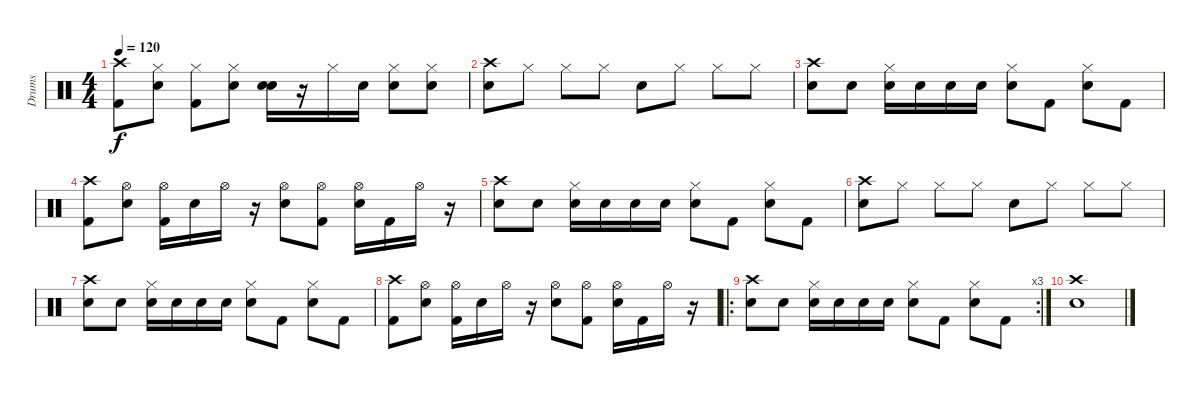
\track ("Drums" "Drums") {instrument percussion}
\staff {score}
\articulation defaults
\ts (4 4)
\tempo 120
\clef neutral
\ks c
("Crash high (hit)" "Kick (hit) 2").8{dy f} ("Hi-Hat (closed)" "Electric Snare (hit)").8 ("Hi-Hat (closed)" "Kick (hit) 2").8 ("Hi-Hat (closed)" "Electric Snare (hit)").8 ("Electric Snare (hit)" "Electric Snare (hit)").16 r.16 "Hi-Hat (closed)".16 "Electric Snare (hit)".16 ("Hi-Hat (closed)" "Electric Snare (hit)").8 ("Hi-Hat (closed)" "Electric Snare (hit)").8 |
("Crash high (hit)" "Electric Snare (hit)").8 "Hi-Hat (closed)".8 "Hi-Hat (closed)".8 "Hi-Hat (closed)".8 "Electric Snare (hit)".8 "Hi-Hat (closed)".8 "Hi-Hat (closed)".8 "Hi-Hat (closed)".8 |
("Crash high (hit)" "Electric Snare (hit)").8 "Electric Snare (hit)".8 ("Hi-Hat (closed)" "Electric Snare (hit)").16 "Electric Snare (hit)".16 "Electric Snare (hit)".16 "Electric Snare (hit)".16 ("Hi-Hat (closed)" "Electric Snare (hit)").8 "Kick (hit) 2".8 ("Hi-Hat (closed)" "Electric Snare (hit)").8 "Kick (hit) 2".8 |
("Crash high (hit)" "Kick (hit) 2").8 ("Hi-Hat (open)" "Electric Snare (hit)").8 ("Hi-Hat (open)" "Kick (hit) 2").16 "Electric Snare (hit)".16 "Hi-Hat (open)".16 r.16 ("Hi-Hat (open)" "Electric Snare (hit)").8 ("Hi-Hat (open)" "Kick (hit) 2").8 ("Hi-Hat (open)" "Electric Snare (hit)").16 "Kick (hit) 2".16 "Hi-Hat (open)".16 r.16 |
("Crash high (hit)" "Electric Snare (hit)").8 "Electric Snare (hit)".8 ("Hi-Hat (closed)" "Electric Snare (hit)").16 "Electric Snare (hit)".16 "Electric Snare (hit)".16 "Electric Snare (hit)".16 ("Hi-Hat (closed)" "Electric Snare (hit)").8 "Kick (hit) 2".8 ("Hi-Hat (closed)" "Electric Snare (hit)").8 "Kick (hit) 2".8 |
("Crash high (hit)" "Electric Snare (hit)").8 "Hi-Hat (closed)".8 "Hi-Hat (closed)".8 "Hi-Hat (closed)".8 "Electric Snare (hit)".8 "Hi-Hat (closed)".8 "Hi-Hat (closed)".8 "Hi-Hat (closed)".8 |
("Crash high (hit)" "Electric Snare (hit)").8 "Electric Snare (hit)".8 ("Hi-Hat (closed)" "Electric Snare (hit)").16 "Electric Snare (hit)".16 "Electric Snare (hit)".16 "Electric Snare (hit)".16 ("Hi-Hat (closed)" "Electric Snare (hit)").8 "Kick (hit) 2".8 ("Hi-Hat (closed)" "Electric Snare (hit)").8 "Kick (hit) 2".8 |
("Crash high (hit)" "Kick (hit) 2").8 ("Hi-Hat (open)" "Electric Snare (hit)").8 ("Hi-Hat (open)" "Kick (hit) 2").16 "Electric Snare (hit)".16 "Hi-Hat (open)".16 r.16 ("Hi-Hat (open)" "Electric Snare (hit)").8 ("Hi-Hat (open)" "Kick (hit) 2").8 ("Hi-Hat (open)" "Electric Snare (hit)").16 "Kick (hit) 2".16 "Hi-Hat (open)".16 r.16 |
\ro
\rc 3
("Crash high (hit)" "Electric Snare (hit)").8 "Electric Snare (hit)".8 ("Hi-Hat (closed)" "Electric Snare (hit)").16 "Electric Snare (hit)".16 "Electric Snare (hit)".16 "Electric Snare (hit)".16 ("Hi-Hat (closed)" "Electric Snare (hit)").8 "Kick (hit) 2".8 ("Hi-Hat (closed)" "Electric Snare (hit)").8 "Kick (hit) 2".8 |
("Crash high (hit)" "Electric Snare (hit)").1
